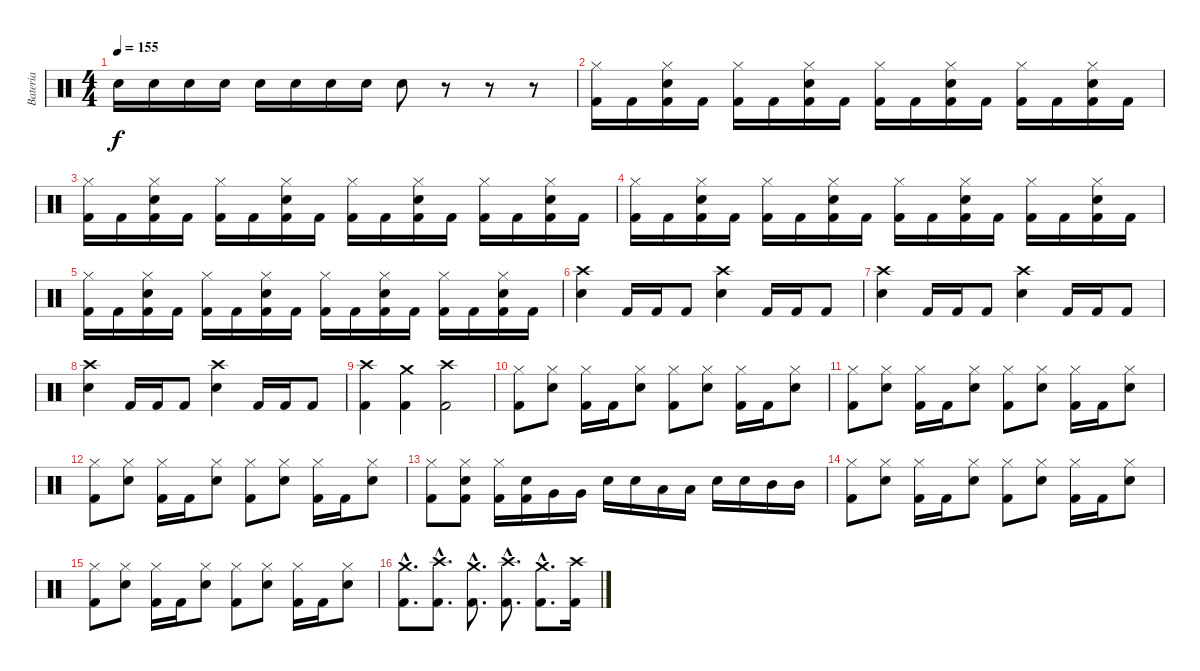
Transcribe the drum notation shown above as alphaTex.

\track ("Bateria" "Bateria") {instrument percussion}
\staff {score}
\articulation defaults
\ts (4 4)
\tempo 155
\clef neutral
\ks c "Electric Snare (hit)".16{dy f} "Electric Snare (hit)".16 "Electric Snare (hit)".16 "Electric Snare (hit)".16 "Electric Snare (hit)".16 "Electric Snare (hit)".16 "Electric Snare (hit)".16 "Electric Snare (hit)".16 "Electric Snare (hit)".8
r.8 r.8 r.8 |
("Kick (hit) 2" "Hi-Hat (closed)").16 "Kick (hit) 2".16 ("Kick (hit) 2" "Hi-Hat (closed)" "Electric Snare (hit)").16 "Kick (hit) 2".16 ("Kick (hit) 2" "Hi-Hat (closed)").16 "Kick (hit) 2".16 ("Kick (hit) 2" "Hi-Hat (closed)" "Electric Snare (hit)").16 "Kick (hit) 2".16 ("Kick (hit) 2" "Hi-Hat (closed)").16 "Kick (hit) 2".16 ("Kick (hit) 2" "Hi-Hat (closed)" "Electric Snare (hit)").16 "Kick (hit) 2".16 ("Kick (hit) 2" "Hi-Hat (closed)").16 "Kick (hit) 2".16 ("Kick (hit) 2" "Hi-Hat (closed)" "Electric Snare (hit)").16 "Kick (hit) 2".16 |
("Kick (hit) 2" "Hi-Hat (closed)").16 "Kick (hit) 2".16 ("Kick (hit) 2" "Hi-Hat (closed)" "Electric Snare (hit)").16 "Kick (hit) 2".16 ("Kick (hit) 2" "Hi-Hat (closed)").16 "Kick (hit) 2".16 ("Kick (hit) 2" "Hi-Hat (closed)" "Electric Snare (hit)").16 "Kick (hit) 2".16 ("Kick (hit) 2" "Hi-Hat (closed)").16 "Kick (hit) 2".16 ("Kick (hit) 2" "Hi-Hat (closed)" "Electric Snare (hit)").16 "Kick (hit) 2".16 ("Kick (hit) 2" "Hi-Hat (closed)").16 "Kick (hit) 2".16 ("Kick (hit) 2" "Hi-Hat (closed)" "Electric Snare (hit)").16 "Kick (hit) 2".16 |
("Kick (hit) 2" "Hi-Hat (closed)").16 "Kick (hit) 2".16 ("Kick (hit) 2" "Hi-Hat (closed)" "Electric Snare (hit)").16 "Kick (hit) 2".16 ("Kick (hit) 2" "Hi-Hat (closed)").16 "Kick (hit) 2".16 ("Kick (hit) 2" "Hi-Hat (closed)" "Electric Snare (hit)").16 "Kick (hit) 2".16 ("Kick (hit) 2" "Hi-Hat (closed)").16 "Kick (hit) 2".16 ("Kick (hit) 2" "Hi-Hat (closed)" "Electric Snare (hit)").16 "Kick (hit) 2".16 ("Kick (hit) 2" "Hi-Hat (closed)").16 "Kick (hit) 2".16 ("Kick (hit) 2" "Hi-Hat (closed)" "Electric Snare (hit)").16 "Kick (hit) 2".16 |
("Kick (hit) 2" "Hi-Hat (closed)").16 "Kick (hit) 2".16 ("Kick (hit) 2" "Hi-Hat (closed)" "Electric Snare (hit)").16 "Kick (hit) 2".16 ("Kick (hit) 2" "Hi-Hat (closed)").16 "Kick (hit) 2".16 ("Kick (hit) 2" "Hi-Hat (closed)" "Electric Snare (hit)").16 "Kick (hit) 2".16 ("Kick (hit) 2" "Hi-Hat (closed)").16 "Kick (hit) 2".16 ("Kick (hit) 2" "Hi-Hat (closed)" "Electric Snare (hit)").16 "Kick (hit) 2".16 ("Kick (hit) 2" "Hi-Hat (closed)").16 "Kick (hit) 2".16 ("Kick (hit) 2" "Hi-Hat (closed)" "Electric Snare (hit)").16 "Kick (hit) 2".16 |
("Electric Snare (hit)" "Crash high (hit)").4 "Kick (hit) 2".16 "Kick (hit) 2".16 "Kick (hit) 2".8 ("Electric Snare (hit)" "Crash high (hit)").4 "Kick (hit) 2".16 "Kick (hit) 2".16 "Kick (hit) 2".8 |
("Electric Snare (hit)" "Crash high (hit)").4 "Kick (hit) 2".16 "Kick (hit) 2".16 "Kick (hit) 2".8 ("Electric Snare (hit)" "Crash high (hit)").4 "Kick (hit) 2".16 "Kick (hit) 2".16 "Kick (hit) 2".8 |
("Electric Snare (hit)" "Crash high (hit)").4 "Kick (hit) 2".16 "Kick (hit) 2".16 "Kick (hit) 2".8 ("Electric Snare (hit)" "Crash high (hit)").4 "Kick (hit) 2".16 "Kick (hit) 2".16 "Kick (hit) 2".8 |
("Kick (hit) 2" "Crash high (hit)").4 ("Kick (hit) 2" "Crash medium (hit)").4 ("Kick (hit) 2" "Crash high (hit)").2 |
("Kick (hit) 2" "Hi-Hat (closed)").8 ("Electric Snare (hit)" "Hi-Hat (closed)").8 ("Kick (hit) 2" "Hi-Hat (closed)").16 "Kick (hit) 2".16 ("Electric Snare (hit)" "Hi-Hat (closed)").8 ("Kick (hit) 2" "Hi-Hat (closed)").8 ("Electric Snare (hit)" "Hi-Hat (closed)").8 ("Kick (hit) 2" "Hi-Hat (closed)").16 "Kick (hit) 2".16 ("Electric Snare (hit)" "Hi-Hat (closed)").8 |
("Kick (hit) 2" "Hi-Hat (closed)").8 ("Electric Snare (hit)" "Hi-Hat (closed)").8 ("Kick (hit) 2" "Hi-Hat (closed)").16 "Kick (hit) 2".16 ("Electric Snare (hit)" "Hi-Hat (closed)").8 ("Kick (hit) 2" "Hi-Hat (closed)").8 ("Electric Snare (hit)" "Hi-Hat (closed)").8 ("Kick (hit) 2" "Hi-Hat (closed)").16 "Kick (hit) 2".16 ("Electric Snare (hit)" "Hi-Hat (closed)").8 |
("Kick (hit) 2" "Hi-Hat (closed)").8 ("Electric Snare (hit)" "Hi-Hat (closed)").8 ("Kick (hit) 2" "Hi-Hat (closed)").16 "Kick (hit) 2".16 ("Electric Snare (hit)" "Hi-Hat (closed)").8 ("Kick (hit) 2" "Hi-Hat (closed)").8 ("Electric Snare (hit)" "Hi-Hat (closed)").8 ("Kick (hit) 2" "Hi-Hat (closed)").16 "Kick (hit) 2".16 ("Electric Snare (hit)" "Hi-Hat (closed)").8 |
("Kick (hit) 2" "Hi-Hat (closed)").8 ("Kick (hit) 2" "Hi-Hat (closed)" "Electric Snare (hit)").8 ("Kick (hit) 2" "Hi-Hat (closed)").16 ("Kick (hit) 2" "Electric Snare (hit)").16 "Very Low Tom (hit)".16 "Very Low Tom (hit)".16 "Electric Snare (hit)".16 "Electric Snare (hit)".16 "Low Tom (hit)".16 "Low Tom (hit)".16 "Electric Snare (hit)".16 "Electric Snare (hit)".16 "Mid Tom (hit)".16 "Mid Tom (hit)".16 |
("Kick (hit) 2" "Hi-Hat (closed)").8 ("Electric Snare (hit)" "Hi-Hat (closed)").8 ("Kick (hit) 2" "Hi-Hat (closed)").16 "Kick (hit) 2".16 ("Electric Snare (hit)" "Hi-Hat (closed)").8 ("Kick (hit) 2" "Hi-Hat (closed)").8 ("Electric Snare (hit)" "Hi-Hat (closed)").8 ("Kick (hit) 2" "Hi-Hat (closed)").16 "Kick (hit) 2".16 ("Electric Snare (hit)" "Hi-Hat (closed)").8 |
("Kick (hit) 2" "Hi-Hat (closed)").8 ("Electric Snare (hit)" "Hi-Hat (closed)").8 ("Kick (hit) 2" "Hi-Hat (closed)").16 "Kick (hit) 2".16 ("Electric Snare (hit)" "Hi-Hat (closed)").8 ("Kick (hit) 2" "Hi-Hat (closed)").8 ("Electric Snare (hit)" "Hi-Hat (closed)").8 ("Kick (hit) 2" "Hi-Hat (closed)").16 "Kick (hit) 2".16 ("Electric Snare (hit)" "Hi-Hat (closed)").8 |
("Kick (hit) 2"{hac} "Crash medium (hit)"{hac}).8{d} ("Kick (hit) 2"{hac} "Crash high (hit)"{hac}).8{d} ("Kick (hit) 2"{hac} "Crash medium (hit)"{hac}).8{d} ("Kick (hit) 2"{hac} "Crash high (hit)"{hac}).8{d} ("Kick (hit) 2"{hac} "Crash medium (hit)"{hac}).8{d} ("Kick (hit) 2" "Crash high (hit)").16
